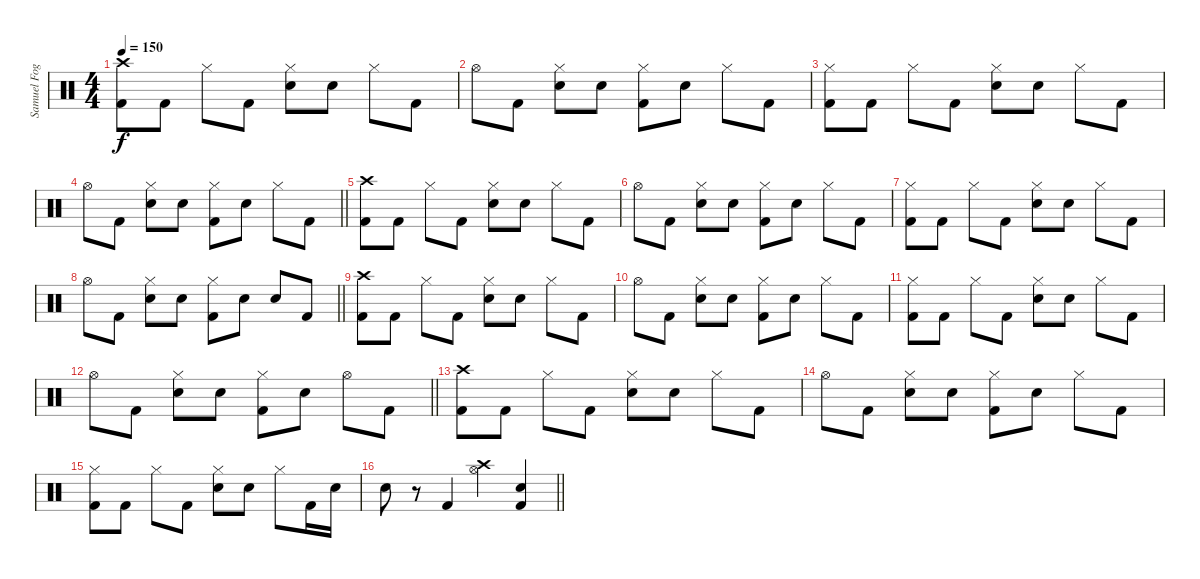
\track ("Samuel Fogarino" "Samuel Fog") {instrument percussion}
\staff {score}
\articulation defaults
\ts (4 4)
\tempo 150
\clef neutral
\ks c
("Crash high (hit)" "Kick (hit) 2").8{dy f} "Kick (hit) 2".8 "Hi-Hat (closed)".8 "Kick (hit) 2".8 ("Hi-Hat (closed)" "Electric Snare (hit)").8 "Electric Snare (hit)".8 "Hi-Hat (closed)".8 "Kick (hit) 2".8 |
"Hi-Hat (open)".8 "Kick (hit) 2".8 ("Hi-Hat (closed)" "Electric Snare (hit)").8 "Electric Snare (hit)".8 ("Hi-Hat (closed)" "Kick (hit) 2").8 "Electric Snare (hit)".8 "Hi-Hat (closed)".8 "Kick (hit) 2".8 |
("Hi-Hat (closed)" "Kick (hit) 2").8 "Kick (hit) 2".8 "Hi-Hat (closed)".8 "Kick (hit) 2".8 ("Hi-Hat (closed)" "Electric Snare (hit)").8 "Electric Snare (hit)".8 "Hi-Hat (closed)".8 "Kick (hit) 2".8 |
\barLineRight lightlight "Hi-Hat (open)".8 "Kick (hit) 2".8
("Hi-Hat (closed)" "Electric Snare (hit)").8 "Electric Snare (hit)".8 ("Hi-Hat (closed)" "Kick (hit) 2").8 "Electric Snare (hit)".8 "Hi-Hat (closed)".8 "Kick (hit) 2".8 |
("Crash high (hit)" "Kick (hit) 2").8 "Kick (hit) 2".8 "Hi-Hat (closed)".8 "Kick (hit) 2".8 ("Hi-Hat (closed)" "Electric Snare (hit)").8 "Electric Snare (hit)".8 "Hi-Hat (closed)".8 "Kick (hit) 2".8 |
"Hi-Hat (open)".8 "Kick (hit) 2".8 ("Hi-Hat (closed)" "Electric Snare (hit)").8 "Electric Snare (hit)".8 ("Hi-Hat (closed)" "Kick (hit) 2").8 "Electric Snare (hit)".8 "Hi-Hat (closed)".8 "Kick (hit) 2".8 |
("Hi-Hat (closed)" "Kick (hit) 2").8 "Kick (hit) 2".8 "Hi-Hat (closed)".8 "Kick (hit) 2".8 ("Hi-Hat (closed)" "Electric Snare (hit)").8 "Electric Snare (hit)".8 "Hi-Hat (closed)".8 "Kick (hit) 2".8 |
\barLineRight lightlight "Hi-Hat (open)".8 "Kick (hit) 2".8
("Hi-Hat (closed)" "Electric Snare (hit)").8 "Electric Snare (hit)".8 ("Hi-Hat (closed)" "Kick (hit) 2").8 "Electric Snare (hit)".8 "Electric Snare (hit)".8 "Kick (hit) 2".8 |
("Crash high (hit)" "Kick (hit) 2").8 "Kick (hit) 2".8 "Hi-Hat (closed)".8 "Kick (hit) 2".8 ("Hi-Hat (closed)" "Electric Snare (hit)").8 "Electric Snare (hit)".8 "Hi-Hat (closed)".8 "Kick (hit) 2".8 |
"Hi-Hat (open)".8 "Kick (hit) 2".8 ("Hi-Hat (closed)" "Electric Snare (hit)").8 "Electric Snare (hit)".8 ("Hi-Hat (closed)" "Kick (hit) 2").8 "Electric Snare (hit)".8 "Hi-Hat (closed)".8 "Kick (hit) 2".8 |
("Hi-Hat (closed)" "Kick (hit) 2").8 "Kick (hit) 2".8 "Hi-Hat (closed)".8 "Kick (hit) 2".8 ("Hi-Hat (closed)" "Electric Snare (hit)").8 "Electric Snare (hit)".8 "Hi-Hat (closed)".8 "Kick (hit) 2".8 |
\barLineRight lightlight "Hi-Hat (open)".8 "Kick (hit) 2".8
("Hi-Hat (closed)" "Electric Snare (hit)").8 "Electric Snare (hit)".8 ("Hi-Hat (closed)" "Kick (hit) 2").8 "Electric Snare (hit)".8 "Hi-Hat (open)".8 "Kick (hit) 2".8 |
("Crash high (hit)" "Kick (hit) 2").8 "Kick (hit) 2".8 "Hi-Hat (closed)".8 "Kick (hit) 2".8 ("Hi-Hat (closed)" "Electric Snare (hit)").8 "Electric Snare (hit)".8 "Hi-Hat (closed)".8 "Kick (hit) 2".8 |
"Hi-Hat (open)".8 "Kick (hit) 2".8 ("Hi-Hat (closed)" "Electric Snare (hit)").8 "Electric Snare (hit)".8 ("Hi-Hat (closed)" "Kick (hit) 2").8 "Electric Snare (hit)".8 "Hi-Hat (closed)".8 "Kick (hit) 2".8 |
("Hi-Hat (closed)" "Kick (hit) 2").8 "Kick (hit) 2".8 "Hi-Hat (closed)".8 "Kick (hit) 2".8 ("Hi-Hat (closed)" "Electric Snare (hit)").8 "Electric Snare (hit)".8 "Hi-Hat (closed)".8 "Kick (hit) 2".16 "Electric Snare (hit)".16 |
\barLineRight lightlight "Electric Snare (hit)".8
r.8 "Kick (hit) 2".4 ("Crash high (hit)" "Hi-Hat (open)").4 ("Electric Snare (hit)" "Kick (hit) 2").4
